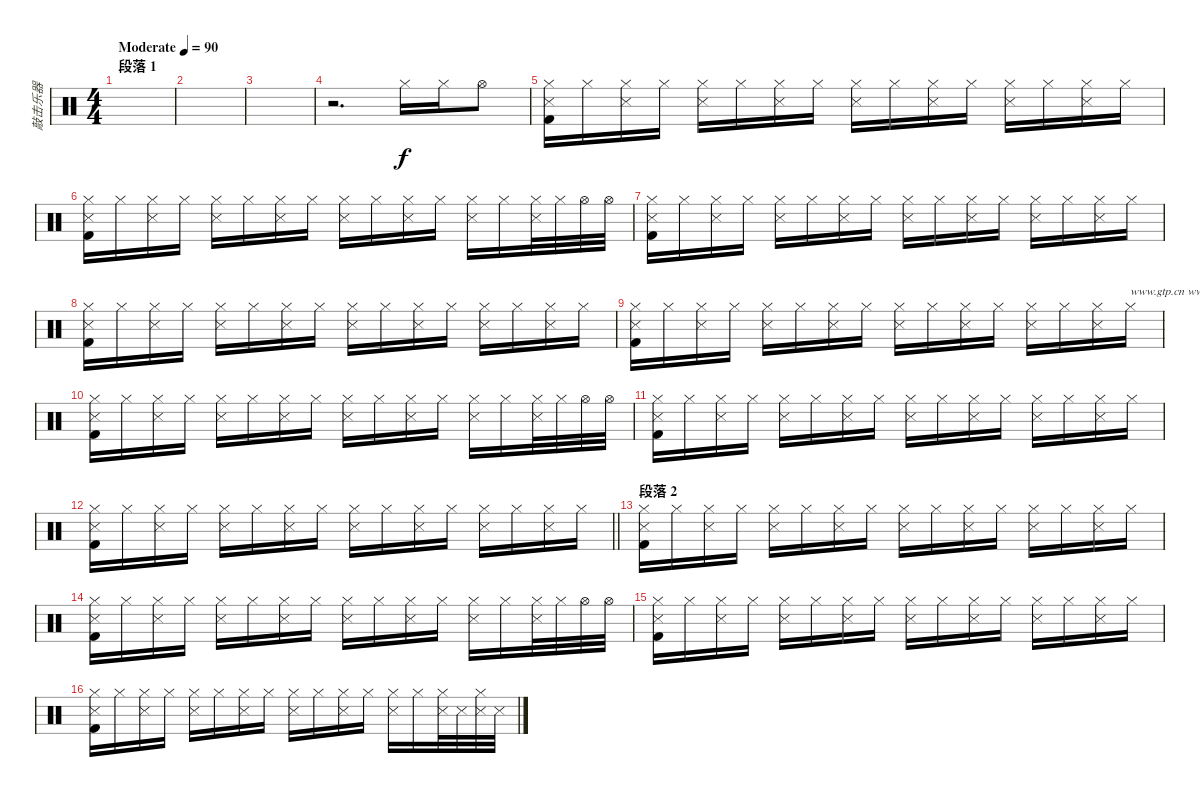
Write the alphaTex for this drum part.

\track ("敲击乐器" "敲击乐器") {instrument percussion}
\staff {score}
\articulation defaults
\ts (4 4)
\section ("" "段落 1")
\tempo (90 "Moderate")
\clef neutral
\ks c
|
|
|
r.2{d} "Hi-Hat (closed)".16 "Hi-Hat (closed)".16 "Hi-Hat (open)".8 |
("Hi-Hat (closed)" "Snare (side stick) 3" "Kick (hit) 2").16 "Hi-Hat (closed)".16 ("Hi-Hat (closed)" "Snare (side stick) 3").16 "Hi-Hat (closed)".16 ("Hi-Hat (closed)" "Snare (side stick) 3").16 "Hi-Hat (closed)".16 ("Hi-Hat (closed)" "Snare (side stick) 3").16 "Hi-Hat (closed)".16 ("Hi-Hat (closed)" "Snare (side stick) 3").16 "Hi-Hat (closed)".16 ("Hi-Hat (closed)" "Snare (side stick) 3").16 "Hi-Hat (closed)".16 ("Hi-Hat (closed)" "Snare (side stick) 3").16 "Hi-Hat (closed)".16 ("Hi-Hat (closed)" "Snare (side stick) 3").16 "Hi-Hat (closed)".16 |
("Hi-Hat (closed)" "Snare (side stick) 3" "Kick (hit) 2").16 "Hi-Hat (closed)".16 ("Hi-Hat (closed)" "Snare (side stick) 3").16 "Hi-Hat (closed)".16 ("Hi-Hat (closed)" "Snare (side stick) 3").16 "Hi-Hat (closed)".16 ("Hi-Hat (closed)" "Snare (side stick) 3").16 "Hi-Hat (closed)".16 ("Hi-Hat (closed)" "Snare (side stick) 3").16 "Hi-Hat (closed)".16 ("Hi-Hat (closed)" "Snare (side stick) 3").16 "Hi-Hat (closed)".16 ("Hi-Hat (closed)" "Snare (side stick) 3").16 "Hi-Hat (closed)".16 ("Hi-Hat (closed)" "Snare (side stick) 3").32 "Hi-Hat (closed)".32 "Hi-Hat (open)".32 "Hi-Hat (open)".32 |
("Hi-Hat (closed)" "Snare (side stick) 3" "Kick (hit) 2").16 "Hi-Hat (closed)".16 ("Hi-Hat (closed)" "Snare (side stick) 3").16 "Hi-Hat (closed)".16 ("Hi-Hat (closed)" "Snare (side stick) 3").16 "Hi-Hat (closed)".16 ("Hi-Hat (closed)" "Snare (side stick) 3").16 "Hi-Hat (closed)".16 ("Hi-Hat (closed)" "Snare (side stick) 3").16 "Hi-Hat (closed)".16 ("Hi-Hat (closed)" "Snare (side stick) 3").16 "Hi-Hat (closed)".16 ("Hi-Hat (closed)" "Snare (side stick) 3").16 "Hi-Hat (closed)".16 ("Hi-Hat (closed)" "Snare (side stick) 3").16 "Hi-Hat (closed)".16 |
("Hi-Hat (closed)" "Snare (side stick) 3" "Kick (hit) 2").16 "Hi-Hat (closed)".16 ("Hi-Hat (closed)" "Snare (side stick) 3").16 "Hi-Hat (closed)".16 ("Hi-Hat (closed)" "Snare (side stick) 3").16 "Hi-Hat (closed)".16 ("Hi-Hat (closed)" "Snare (side stick) 3").16 "Hi-Hat (closed)".16 ("Hi-Hat (closed)" "Snare (side stick) 3").16 "Hi-Hat (closed)".16 ("Hi-Hat (closed)" "Snare (side stick) 3").16 "Hi-Hat (closed)".16 ("Hi-Hat (closed)" "Snare (side stick) 3").16 "Hi-Hat (closed)".16 ("Hi-Hat (closed)" "Snare (side stick) 3").16 "Hi-Hat (closed)".16 |
("Hi-Hat (closed)" "Snare (side stick) 3" "Kick (hit) 2").16 "Hi-Hat (closed)".16 ("Hi-Hat (closed)" "Snare (side stick) 3").16 "Hi-Hat (closed)".16 ("Hi-Hat (closed)" "Snare (side stick) 3").16 "Hi-Hat (closed)".16 ("Hi-Hat (closed)" "Snare (side stick) 3").16 "Hi-Hat (closed)".16 ("Hi-Hat (closed)" "Snare (side stick) 3").16 "Hi-Hat (closed)".16 ("Hi-Hat (closed)" "Snare (side stick) 3").16 "Hi-Hat (closed)".16 ("Hi-Hat (closed)" "Snare (side stick) 3").16 "Hi-Hat (closed)".16 ("Hi-Hat (closed)" "Snare (side stick) 3").16 "Hi-Hat (closed)".16{txt "www.gtp.cn www.51gtp.com联合为您提供优秀的GTP!"} |
("Hi-Hat (closed)" "Snare (side stick) 3" "Kick (hit) 2").16 "Hi-Hat (closed)".16 ("Hi-Hat (closed)" "Snare (side stick) 3").16 "Hi-Hat (closed)".16 ("Hi-Hat (closed)" "Snare (side stick) 3").16 "Hi-Hat (closed)".16 ("Hi-Hat (closed)" "Snare (side stick) 3").16 "Hi-Hat (closed)".16 ("Hi-Hat (closed)" "Snare (side stick) 3").16 "Hi-Hat (closed)".16 ("Hi-Hat (closed)" "Snare (side stick) 3").16 "Hi-Hat (closed)".16 ("Hi-Hat (closed)" "Snare (side stick) 3").16 "Hi-Hat (closed)".16 ("Hi-Hat (closed)" "Snare (side stick) 3").32 "Hi-Hat (closed)".32 "Hi-Hat (open)".32 "Hi-Hat (open)".32 |
("Hi-Hat (closed)" "Snare (side stick) 3" "Kick (hit) 2").16 "Hi-Hat (closed)".16 ("Hi-Hat (closed)" "Snare (side stick) 3").16 "Hi-Hat (closed)".16 ("Hi-Hat (closed)" "Snare (side stick) 3").16 "Hi-Hat (closed)".16 ("Hi-Hat (closed)" "Snare (side stick) 3").16 "Hi-Hat (closed)".16 ("Hi-Hat (closed)" "Snare (side stick) 3").16 "Hi-Hat (closed)".16 ("Hi-Hat (closed)" "Snare (side stick) 3").16 "Hi-Hat (closed)".16 ("Hi-Hat (closed)" "Snare (side stick) 3").16 "Hi-Hat (closed)".16 ("Hi-Hat (closed)" "Snare (side stick) 3").16 "Hi-Hat (closed)".16 |
\barLineRight lightlight
("Hi-Hat (closed)" "Snare (side stick) 3" "Kick (hit) 2").16 "Hi-Hat (closed)".16 ("Hi-Hat (closed)" "Snare (side stick) 3").16 "Hi-Hat (closed)".16 ("Hi-Hat (closed)" "Snare (side stick) 3").16 "Hi-Hat (closed)".16 ("Hi-Hat (closed)" "Snare (side stick) 3").16 "Hi-Hat (closed)".16 ("Hi-Hat (closed)" "Snare (side stick) 3").16 "Hi-Hat (closed)".16 ("Hi-Hat (closed)" "Snare (side stick) 3").16 "Hi-Hat (closed)".16 ("Hi-Hat (closed)" "Snare (side stick) 3").16 "Hi-Hat (closed)".16 ("Hi-Hat (closed)" "Snare (side stick) 3").16 "Hi-Hat (closed)".16 |
\section ("" "段落 2")
("Hi-Hat (closed)" "Snare (side stick) 3" "Kick (hit) 2").16 "Hi-Hat (closed)".16 ("Hi-Hat (closed)" "Snare (side stick) 3").16 "Hi-Hat (closed)".16 ("Hi-Hat (closed)" "Snare (side stick) 3").16 "Hi-Hat (closed)".16 ("Hi-Hat (closed)" "Snare (side stick) 3").16 "Hi-Hat (closed)".16 ("Hi-Hat (closed)" "Snare (side stick) 3").16 "Hi-Hat (closed)".16 ("Hi-Hat (closed)" "Snare (side stick) 3").16 "Hi-Hat (closed)".16 ("Hi-Hat (closed)" "Snare (side stick) 3").16 "Hi-Hat (closed)".16 ("Hi-Hat (closed)" "Snare (side stick) 3").16 "Hi-Hat (closed)".16 |
("Hi-Hat (closed)" "Snare (side stick) 3" "Kick (hit) 2").16 "Hi-Hat (closed)".16 ("Hi-Hat (closed)" "Snare (side stick) 3").16 "Hi-Hat (closed)".16 ("Hi-Hat (closed)" "Snare (side stick) 3").16 "Hi-Hat (closed)".16 ("Hi-Hat (closed)" "Snare (side stick) 3").16 "Hi-Hat (closed)".16 ("Hi-Hat (closed)" "Snare (side stick) 3").16 "Hi-Hat (closed)".16 ("Hi-Hat (closed)" "Snare (side stick) 3").16 "Hi-Hat (closed)".16 ("Hi-Hat (closed)" "Snare (side stick) 3").16 "Hi-Hat (closed)".16 ("Hi-Hat (closed)" "Snare (side stick) 3").32 "Hi-Hat (closed)".32 "Hi-Hat (open)".32 "Hi-Hat (open)".32 |
("Hi-Hat (closed)" "Snare (side stick) 3" "Kick (hit) 2").16 "Hi-Hat (closed)".16 ("Hi-Hat (closed)" "Snare (side stick) 3").16 "Hi-Hat (closed)".16 ("Hi-Hat (closed)" "Snare (side stick) 3").16 "Hi-Hat (closed)".16 ("Hi-Hat (closed)" "Snare (side stick) 3").16 "Hi-Hat (closed)".16 ("Hi-Hat (closed)" "Snare (side stick) 3").16 "Hi-Hat (closed)".16 ("Hi-Hat (closed)" "Snare (side stick) 3").16 "Hi-Hat (closed)".16 ("Hi-Hat (closed)" "Snare (side stick) 3").16 "Hi-Hat (closed)".16 ("Hi-Hat (closed)" "Snare (side stick) 3").16 "Hi-Hat (closed)".16 |
("Hi-Hat (closed)" "Snare (side stick) 3" "Kick (hit) 2").16 "Hi-Hat (closed)".16 ("Hi-Hat (closed)" "Snare (side stick) 3").16 "Hi-Hat (closed)".16 ("Hi-Hat (closed)" "Snare (side stick) 3").16 "Hi-Hat (closed)".16 ("Hi-Hat (closed)" "Snare (side stick) 3").16 "Hi-Hat (closed)".16 ("Hi-Hat (closed)" "Snare (side stick) 3").16 "Hi-Hat (closed)".16 ("Hi-Hat (closed)" "Snare (side stick) 3").16 "Hi-Hat (closed)".16 ("Hi-Hat (closed)" "Snare (side stick) 3").16 "Hi-Hat (closed)".16 ("Hi-Hat (closed)" "Snare (side stick) 3").32 "Snare (side stick) 3".32 ("Hi-Hat (closed)" "Snare (side stick) 3").32 "Snare (side stick) 3".32
